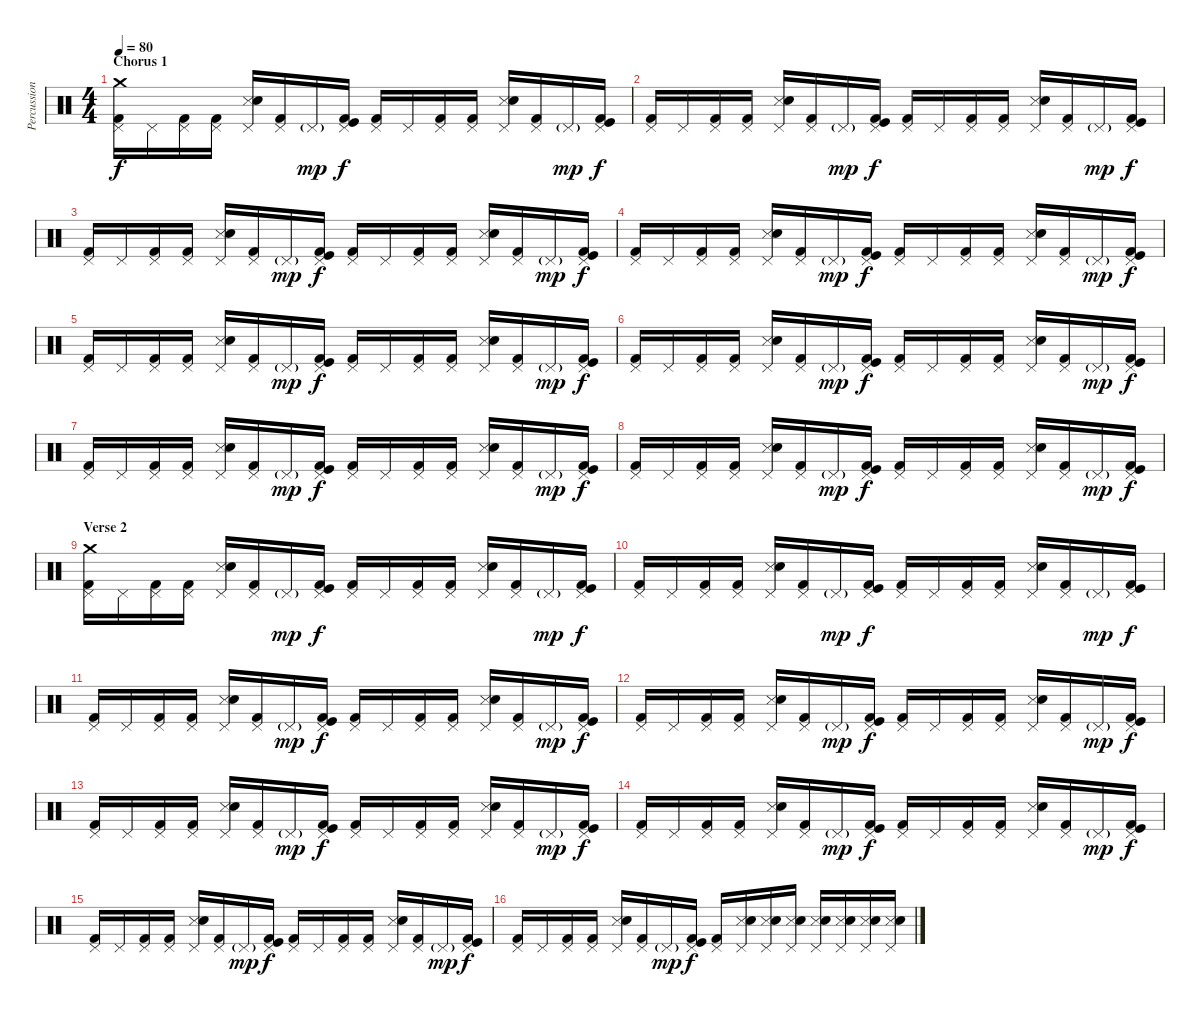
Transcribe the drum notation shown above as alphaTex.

\track ("Percussions" "Percussion") {instrument percussion}
\staff {score}
\articulation defaults
\ts (4 4)
\section ("" "Chorus 1")
\tempo 80
\clef neutral
\ks c
("Crash medium (hit)" "Pedal Hi-Hat (hit)" "Kick (hit) 2").16{dy f} "Pedal Hi-Hat (hit)".16 ("Pedal Hi-Hat (hit)" "Kick (hit) 2").16 ("Pedal Hi-Hat (hit)" "Kick (hit) 2").16 ("Pedal Hi-Hat (hit)" "Snare (side stick) 3" "Electric Snare (hit)").16 ("Pedal Hi-Hat (hit)" "Kick (hit) 2").16 "Pedal Hi-Hat (hit)"{g}.16{dy mp} ("Pedal Hi-Hat (hit)" "Kick (hit) 2" "Kick (hit)").16{dy f} ("Pedal Hi-Hat (hit)" "Kick (hit) 2").16 "Pedal Hi-Hat (hit)".16 ("Pedal Hi-Hat (hit)" "Kick (hit) 2").16 ("Pedal Hi-Hat (hit)" "Kick (hit) 2").16 ("Pedal Hi-Hat (hit)" "Snare (side stick) 3" "Electric Snare (hit)").16 ("Pedal Hi-Hat (hit)" "Kick (hit) 2").16 "Pedal Hi-Hat (hit)"{g}.16{dy mp} ("Pedal Hi-Hat (hit)" "Kick (hit) 2" "Kick (hit)").16{dy f} |
("Pedal Hi-Hat (hit)" "Kick (hit) 2").16 "Pedal Hi-Hat (hit)".16 ("Pedal Hi-Hat (hit)" "Kick (hit) 2").16 ("Pedal Hi-Hat (hit)" "Kick (hit) 2").16 ("Pedal Hi-Hat (hit)" "Snare (side stick) 3" "Electric Snare (hit)").16 ("Pedal Hi-Hat (hit)" "Kick (hit) 2").16 "Pedal Hi-Hat (hit)"{g}.16{dy mp} ("Pedal Hi-Hat (hit)" "Kick (hit) 2" "Kick (hit)").16{dy f} ("Pedal Hi-Hat (hit)" "Kick (hit) 2").16 "Pedal Hi-Hat (hit)".16 ("Pedal Hi-Hat (hit)" "Kick (hit) 2").16 ("Pedal Hi-Hat (hit)" "Kick (hit) 2").16 ("Pedal Hi-Hat (hit)" "Snare (side stick) 3" "Electric Snare (hit)").16 ("Pedal Hi-Hat (hit)" "Kick (hit) 2").16 "Pedal Hi-Hat (hit)"{g}.16{dy mp} ("Pedal Hi-Hat (hit)" "Kick (hit) 2" "Kick (hit)").16{dy f} |
("Pedal Hi-Hat (hit)" "Kick (hit) 2").16 "Pedal Hi-Hat (hit)".16 ("Pedal Hi-Hat (hit)" "Kick (hit) 2").16 ("Pedal Hi-Hat (hit)" "Kick (hit) 2").16 ("Pedal Hi-Hat (hit)" "Snare (side stick) 3" "Electric Snare (hit)").16 ("Pedal Hi-Hat (hit)" "Kick (hit) 2").16 "Pedal Hi-Hat (hit)"{g}.16{dy mp} ("Pedal Hi-Hat (hit)" "Kick (hit) 2" "Kick (hit)").16{dy f} ("Pedal Hi-Hat (hit)" "Kick (hit) 2").16 "Pedal Hi-Hat (hit)".16 ("Pedal Hi-Hat (hit)" "Kick (hit) 2").16 ("Pedal Hi-Hat (hit)" "Kick (hit) 2").16 ("Pedal Hi-Hat (hit)" "Snare (side stick) 3" "Electric Snare (hit)").16 ("Pedal Hi-Hat (hit)" "Kick (hit) 2").16 "Pedal Hi-Hat (hit)"{g}.16{dy mp} ("Pedal Hi-Hat (hit)" "Kick (hit) 2" "Kick (hit)").16{dy f} |
("Pedal Hi-Hat (hit)" "Kick (hit) 2").16 "Pedal Hi-Hat (hit)".16 ("Pedal Hi-Hat (hit)" "Kick (hit) 2").16 ("Pedal Hi-Hat (hit)" "Kick (hit) 2").16 ("Pedal Hi-Hat (hit)" "Snare (side stick) 3" "Electric Snare (hit)").16 ("Pedal Hi-Hat (hit)" "Kick (hit) 2").16 "Pedal Hi-Hat (hit)"{g}.16{dy mp} ("Pedal Hi-Hat (hit)" "Kick (hit) 2" "Kick (hit)").16{dy f} ("Pedal Hi-Hat (hit)" "Kick (hit) 2").16 "Pedal Hi-Hat (hit)".16 ("Pedal Hi-Hat (hit)" "Kick (hit) 2").16 ("Pedal Hi-Hat (hit)" "Kick (hit) 2").16 ("Pedal Hi-Hat (hit)" "Snare (side stick) 3" "Electric Snare (hit)").16 ("Pedal Hi-Hat (hit)" "Kick (hit) 2").16 "Pedal Hi-Hat (hit)"{g}.16{dy mp} ("Pedal Hi-Hat (hit)" "Kick (hit) 2" "Kick (hit)").16{dy f} |
("Pedal Hi-Hat (hit)" "Kick (hit) 2").16 "Pedal Hi-Hat (hit)".16 ("Pedal Hi-Hat (hit)" "Kick (hit) 2").16 ("Pedal Hi-Hat (hit)" "Kick (hit) 2").16 ("Pedal Hi-Hat (hit)" "Snare (side stick) 3" "Electric Snare (hit)").16 ("Pedal Hi-Hat (hit)" "Kick (hit) 2").16 "Pedal Hi-Hat (hit)"{g}.16{dy mp} ("Pedal Hi-Hat (hit)" "Kick (hit) 2" "Kick (hit)").16{dy f} ("Pedal Hi-Hat (hit)" "Kick (hit) 2").16 "Pedal Hi-Hat (hit)".16 ("Pedal Hi-Hat (hit)" "Kick (hit) 2").16 ("Pedal Hi-Hat (hit)" "Kick (hit) 2").16 ("Pedal Hi-Hat (hit)" "Snare (side stick) 3" "Electric Snare (hit)").16 ("Pedal Hi-Hat (hit)" "Kick (hit) 2").16 "Pedal Hi-Hat (hit)"{g}.16{dy mp} ("Pedal Hi-Hat (hit)" "Kick (hit) 2" "Kick (hit)").16{dy f} |
("Pedal Hi-Hat (hit)" "Kick (hit) 2").16 "Pedal Hi-Hat (hit)".16 ("Pedal Hi-Hat (hit)" "Kick (hit) 2").16 ("Pedal Hi-Hat (hit)" "Kick (hit) 2").16 ("Pedal Hi-Hat (hit)" "Snare (side stick) 3" "Electric Snare (hit)").16 ("Pedal Hi-Hat (hit)" "Kick (hit) 2").16 "Pedal Hi-Hat (hit)"{g}.16{dy mp} ("Pedal Hi-Hat (hit)" "Kick (hit) 2" "Kick (hit)").16{dy f} ("Pedal Hi-Hat (hit)" "Kick (hit) 2").16 "Pedal Hi-Hat (hit)".16 ("Pedal Hi-Hat (hit)" "Kick (hit) 2").16 ("Pedal Hi-Hat (hit)" "Kick (hit) 2").16 ("Pedal Hi-Hat (hit)" "Snare (side stick) 3" "Electric Snare (hit)").16 ("Pedal Hi-Hat (hit)" "Kick (hit) 2").16 "Pedal Hi-Hat (hit)"{g}.16{dy mp} ("Pedal Hi-Hat (hit)" "Kick (hit) 2" "Kick (hit)").16{dy f} |
("Pedal Hi-Hat (hit)" "Kick (hit) 2").16 "Pedal Hi-Hat (hit)".16 ("Pedal Hi-Hat (hit)" "Kick (hit) 2").16 ("Pedal Hi-Hat (hit)" "Kick (hit) 2").16 ("Pedal Hi-Hat (hit)" "Snare (side stick) 3" "Electric Snare (hit)").16 ("Pedal Hi-Hat (hit)" "Kick (hit) 2").16 "Pedal Hi-Hat (hit)"{g}.16{dy mp} ("Pedal Hi-Hat (hit)" "Kick (hit) 2" "Kick (hit)").16{dy f} ("Pedal Hi-Hat (hit)" "Kick (hit) 2").16 "Pedal Hi-Hat (hit)".16 ("Pedal Hi-Hat (hit)" "Kick (hit) 2").16 ("Pedal Hi-Hat (hit)" "Kick (hit) 2").16 ("Pedal Hi-Hat (hit)" "Snare (side stick) 3" "Electric Snare (hit)").16 ("Pedal Hi-Hat (hit)" "Kick (hit) 2").16 "Pedal Hi-Hat (hit)"{g}.16{dy mp} ("Pedal Hi-Hat (hit)" "Kick (hit) 2" "Kick (hit)").16{dy f} |
("Pedal Hi-Hat (hit)" "Kick (hit) 2").16 "Pedal Hi-Hat (hit)".16 ("Pedal Hi-Hat (hit)" "Kick (hit) 2").16 ("Pedal Hi-Hat (hit)" "Kick (hit) 2").16 ("Pedal Hi-Hat (hit)" "Snare (side stick) 3" "Electric Snare (hit)").16 ("Pedal Hi-Hat (hit)" "Kick (hit) 2").16 "Pedal Hi-Hat (hit)"{g}.16{dy mp} ("Pedal Hi-Hat (hit)" "Kick (hit) 2" "Kick (hit)").16{dy f} ("Pedal Hi-Hat (hit)" "Kick (hit) 2").16 "Pedal Hi-Hat (hit)".16 ("Pedal Hi-Hat (hit)" "Kick (hit) 2").16 ("Pedal Hi-Hat (hit)" "Kick (hit) 2").16 ("Pedal Hi-Hat (hit)" "Snare (side stick) 3" "Electric Snare (hit)").16 ("Pedal Hi-Hat (hit)" "Kick (hit) 2").16 "Pedal Hi-Hat (hit)"{g}.16{dy mp} ("Pedal Hi-Hat (hit)" "Kick (hit) 2" "Kick (hit)").16{dy f} |
\section ("" "Verse 2")
("Crash medium (hit)" "Pedal Hi-Hat (hit)" "Kick (hit) 2").16 "Pedal Hi-Hat (hit)".16 ("Pedal Hi-Hat (hit)" "Kick (hit) 2").16 ("Pedal Hi-Hat (hit)" "Kick (hit) 2").16 ("Pedal Hi-Hat (hit)" "Snare (side stick) 3" "Electric Snare (hit)").16 ("Pedal Hi-Hat (hit)" "Kick (hit) 2").16 "Pedal Hi-Hat (hit)"{g}.16{dy mp} ("Pedal Hi-Hat (hit)" "Kick (hit) 2" "Kick (hit)").16{dy f} ("Pedal Hi-Hat (hit)" "Kick (hit) 2").16 "Pedal Hi-Hat (hit)".16 ("Pedal Hi-Hat (hit)" "Kick (hit) 2").16 ("Pedal Hi-Hat (hit)" "Kick (hit) 2").16 ("Pedal Hi-Hat (hit)" "Snare (side stick) 3" "Electric Snare (hit)").16 ("Pedal Hi-Hat (hit)" "Kick (hit) 2").16 "Pedal Hi-Hat (hit)"{g}.16{dy mp} ("Pedal Hi-Hat (hit)" "Kick (hit) 2" "Kick (hit)").16{dy f} |
("Pedal Hi-Hat (hit)" "Kick (hit) 2").16 "Pedal Hi-Hat (hit)".16 ("Pedal Hi-Hat (hit)" "Kick (hit) 2").16 ("Pedal Hi-Hat (hit)" "Kick (hit) 2").16 ("Pedal Hi-Hat (hit)" "Snare (side stick) 3" "Electric Snare (hit)").16 ("Pedal Hi-Hat (hit)" "Kick (hit) 2").16 "Pedal Hi-Hat (hit)"{g}.16{dy mp} ("Pedal Hi-Hat (hit)" "Kick (hit) 2" "Kick (hit)").16{dy f} ("Pedal Hi-Hat (hit)" "Kick (hit) 2").16 "Pedal Hi-Hat (hit)".16 ("Pedal Hi-Hat (hit)" "Kick (hit) 2").16 ("Pedal Hi-Hat (hit)" "Kick (hit) 2").16 ("Pedal Hi-Hat (hit)" "Snare (side stick) 3" "Electric Snare (hit)").16 ("Pedal Hi-Hat (hit)" "Kick (hit) 2").16 "Pedal Hi-Hat (hit)"{g}.16{dy mp} ("Pedal Hi-Hat (hit)" "Kick (hit) 2" "Kick (hit)").16{dy f} |
("Pedal Hi-Hat (hit)" "Kick (hit) 2").16 "Pedal Hi-Hat (hit)".16 ("Pedal Hi-Hat (hit)" "Kick (hit) 2").16 ("Pedal Hi-Hat (hit)" "Kick (hit) 2").16 ("Pedal Hi-Hat (hit)" "Snare (side stick) 3" "Electric Snare (hit)").16 ("Pedal Hi-Hat (hit)" "Kick (hit) 2").16 "Pedal Hi-Hat (hit)"{g}.16{dy mp} ("Pedal Hi-Hat (hit)" "Kick (hit) 2" "Kick (hit)").16{dy f} ("Pedal Hi-Hat (hit)" "Kick (hit) 2").16 "Pedal Hi-Hat (hit)".16 ("Pedal Hi-Hat (hit)" "Kick (hit) 2").16 ("Pedal Hi-Hat (hit)" "Kick (hit) 2").16 ("Pedal Hi-Hat (hit)" "Snare (side stick) 3" "Electric Snare (hit)").16 ("Pedal Hi-Hat (hit)" "Kick (hit) 2").16 "Pedal Hi-Hat (hit)"{g}.16{dy mp} ("Pedal Hi-Hat (hit)" "Kick (hit) 2" "Kick (hit)").16{dy f} |
("Pedal Hi-Hat (hit)" "Kick (hit) 2").16 "Pedal Hi-Hat (hit)".16 ("Pedal Hi-Hat (hit)" "Kick (hit) 2").16 ("Pedal Hi-Hat (hit)" "Kick (hit) 2").16 ("Pedal Hi-Hat (hit)" "Snare (side stick) 3" "Electric Snare (hit)").16 ("Pedal Hi-Hat (hit)" "Kick (hit) 2").16 "Pedal Hi-Hat (hit)"{g}.16{dy mp} ("Pedal Hi-Hat (hit)" "Kick (hit) 2" "Kick (hit)").16{dy f} ("Pedal Hi-Hat (hit)" "Kick (hit) 2").16 "Pedal Hi-Hat (hit)".16 ("Pedal Hi-Hat (hit)" "Kick (hit) 2").16 ("Pedal Hi-Hat (hit)" "Kick (hit) 2").16 ("Pedal Hi-Hat (hit)" "Snare (side stick) 3" "Electric Snare (hit)").16 ("Pedal Hi-Hat (hit)" "Kick (hit) 2").16 "Pedal Hi-Hat (hit)"{g}.16{dy mp} ("Pedal Hi-Hat (hit)" "Kick (hit) 2" "Kick (hit)").16{dy f} |
("Pedal Hi-Hat (hit)" "Kick (hit) 2").16 "Pedal Hi-Hat (hit)".16 ("Pedal Hi-Hat (hit)" "Kick (hit) 2").16 ("Pedal Hi-Hat (hit)" "Kick (hit) 2").16 ("Pedal Hi-Hat (hit)" "Snare (side stick) 3" "Electric Snare (hit)").16 ("Pedal Hi-Hat (hit)" "Kick (hit) 2").16 "Pedal Hi-Hat (hit)"{g}.16{dy mp} ("Pedal Hi-Hat (hit)" "Kick (hit) 2" "Kick (hit)").16{dy f} ("Pedal Hi-Hat (hit)" "Kick (hit) 2").16 "Pedal Hi-Hat (hit)".16 ("Pedal Hi-Hat (hit)" "Kick (hit) 2").16 ("Pedal Hi-Hat (hit)" "Kick (hit) 2").16 ("Pedal Hi-Hat (hit)" "Snare (side stick) 3" "Electric Snare (hit)").16 ("Pedal Hi-Hat (hit)" "Kick (hit) 2").16 "Pedal Hi-Hat (hit)"{g}.16{dy mp} ("Pedal Hi-Hat (hit)" "Kick (hit) 2" "Kick (hit)").16{dy f} |
("Pedal Hi-Hat (hit)" "Kick (hit) 2").16 "Pedal Hi-Hat (hit)".16 ("Pedal Hi-Hat (hit)" "Kick (hit) 2").16 ("Pedal Hi-Hat (hit)" "Kick (hit) 2").16 ("Pedal Hi-Hat (hit)" "Snare (side stick) 3" "Electric Snare (hit)").16 ("Pedal Hi-Hat (hit)" "Kick (hit) 2").16 "Pedal Hi-Hat (hit)"{g}.16{dy mp} ("Pedal Hi-Hat (hit)" "Kick (hit) 2" "Kick (hit)").16{dy f} ("Pedal Hi-Hat (hit)" "Kick (hit) 2").16 "Pedal Hi-Hat (hit)".16 ("Pedal Hi-Hat (hit)" "Kick (hit) 2").16 ("Pedal Hi-Hat (hit)" "Kick (hit) 2").16 ("Pedal Hi-Hat (hit)" "Snare (side stick) 3" "Electric Snare (hit)").16 ("Pedal Hi-Hat (hit)" "Kick (hit) 2").16 "Pedal Hi-Hat (hit)"{g}.16{dy mp} ("Pedal Hi-Hat (hit)" "Kick (hit) 2" "Kick (hit)").16{dy f} |
("Pedal Hi-Hat (hit)" "Kick (hit) 2").16 "Pedal Hi-Hat (hit)".16 ("Pedal Hi-Hat (hit)" "Kick (hit) 2").16 ("Pedal Hi-Hat (hit)" "Kick (hit) 2").16 ("Pedal Hi-Hat (hit)" "Snare (side stick) 3" "Electric Snare (hit)").16 ("Pedal Hi-Hat (hit)" "Kick (hit) 2").16 "Pedal Hi-Hat (hit)"{g}.16{dy mp} ("Pedal Hi-Hat (hit)" "Kick (hit) 2" "Kick (hit)").16{dy f} ("Pedal Hi-Hat (hit)" "Kick (hit) 2").16 "Pedal Hi-Hat (hit)".16 ("Pedal Hi-Hat (hit)" "Kick (hit) 2").16 ("Pedal Hi-Hat (hit)" "Kick (hit) 2").16 ("Pedal Hi-Hat (hit)" "Snare (side stick) 3" "Electric Snare (hit)").16 ("Pedal Hi-Hat (hit)" "Kick (hit) 2").16 "Pedal Hi-Hat (hit)"{g}.16{dy mp} ("Pedal Hi-Hat (hit)" "Kick (hit) 2" "Kick (hit)").16{dy f} |
("Pedal Hi-Hat (hit)" "Kick (hit) 2").16 "Pedal Hi-Hat (hit)".16 ("Pedal Hi-Hat (hit)" "Kick (hit) 2").16 ("Pedal Hi-Hat (hit)" "Kick (hit) 2").16 ("Pedal Hi-Hat (hit)" "Snare (side stick) 3" "Electric Snare (hit)").16 ("Pedal Hi-Hat (hit)" "Kick (hit) 2").16 "Pedal Hi-Hat (hit)"{g}.16{dy mp} ("Pedal Hi-Hat (hit)" "Kick (hit) 2" "Kick (hit)").16{dy f} ("Pedal Hi-Hat (hit)" "Kick (hit) 2").16 ("Pedal Hi-Hat (hit)" "Snare (side stick) 3" "Electric Snare (hit)").16 ("Pedal Hi-Hat (hit)" "Snare (side stick) 3" "Electric Snare (hit)").16 ("Pedal Hi-Hat (hit)" "Snare (side stick) 3" "Electric Snare (hit)").16 ("Pedal Hi-Hat (hit)" "Snare (side stick) 3" "Electric Snare (hit)").16 ("Pedal Hi-Hat (hit)" "Snare (side stick) 3" "Electric Snare (hit)").16 ("Pedal Hi-Hat (hit)" "Snare (side stick) 3" "Electric Snare (hit)").16 ("Pedal Hi-Hat (hit)" "Snare (side stick) 3" "Electric Snare (hit)").16
